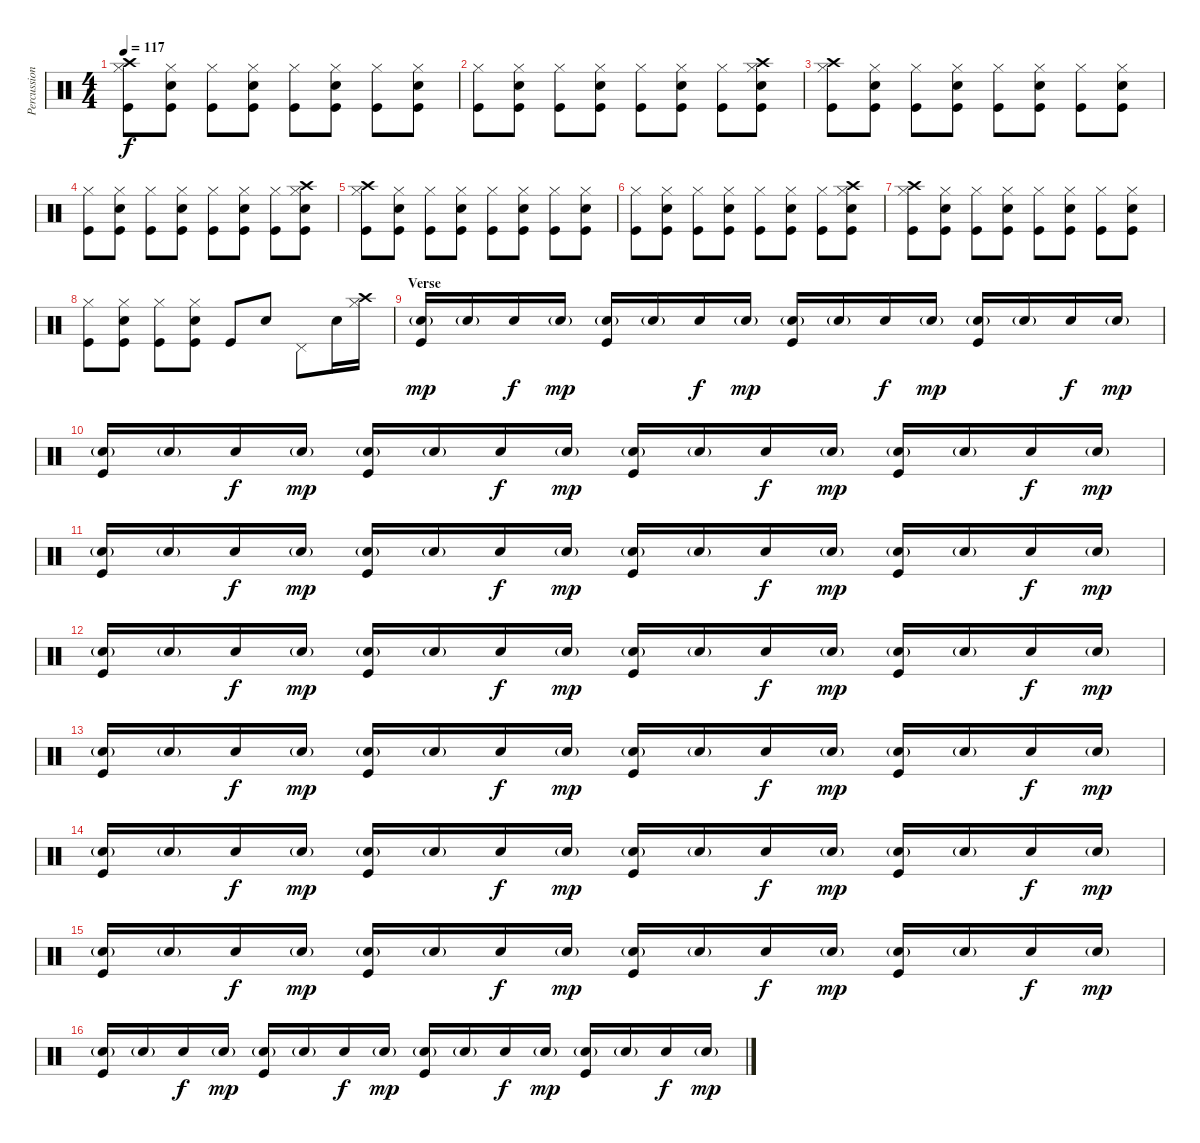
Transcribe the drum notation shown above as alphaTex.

\track ("Percussion" "Percussion") {instrument percussion}
\staff {score}
\articulation defaults
\ts (4 4)
\tempo 117
\clef neutral
\ks c
("Crash high (hit)" "Hi-Hat (closed)" "Kick (hit)").8{dy f} ("Hi-Hat (closed)" "Snare (hit) 2" "Kick (hit)").8 ("Hi-Hat (closed)" "Kick (hit)").8 ("Hi-Hat (closed)" "Snare (hit) 2" "Kick (hit)").8 ("Hi-Hat (closed)" "Kick (hit)").8 ("Hi-Hat (closed)" "Snare (hit) 2" "Kick (hit)").8 ("Hi-Hat (closed)" "Kick (hit)").8 ("Hi-Hat (closed)" "Snare (hit) 2" "Kick (hit)").8 |
("Hi-Hat (closed)" "Kick (hit)").8 ("Hi-Hat (closed)" "Snare (hit) 2" "Kick (hit)").8 ("Hi-Hat (closed)" "Kick (hit)").8 ("Hi-Hat (closed)" "Snare (hit) 2" "Kick (hit)").8 ("Hi-Hat (closed)" "Kick (hit)").8 ("Hi-Hat (closed)" "Snare (hit) 2" "Kick (hit)").8 ("Hi-Hat (closed)" "Kick (hit)").8 ("Crash high (hit)" "Hi-Hat (closed)" "Snare (hit) 2" "Kick (hit)").8 |
("Crash high (hit)" "Hi-Hat (closed)" "Kick (hit)").8 ("Hi-Hat (closed)" "Snare (hit) 2" "Kick (hit)").8 ("Hi-Hat (closed)" "Kick (hit)").8 ("Hi-Hat (closed)" "Snare (hit) 2" "Kick (hit)").8 ("Hi-Hat (closed)" "Kick (hit)").8 ("Hi-Hat (closed)" "Snare (hit) 2" "Kick (hit)").8 ("Hi-Hat (closed)" "Kick (hit)").8 ("Hi-Hat (closed)" "Snare (hit) 2" "Kick (hit)").8 |
("Hi-Hat (closed)" "Kick (hit)").8 ("Hi-Hat (closed)" "Snare (hit) 2" "Kick (hit)").8 ("Hi-Hat (closed)" "Kick (hit)").8 ("Hi-Hat (closed)" "Snare (hit) 2" "Kick (hit)").8 ("Hi-Hat (closed)" "Kick (hit)").8 ("Hi-Hat (closed)" "Snare (hit) 2" "Kick (hit)").8 ("Hi-Hat (closed)" "Kick (hit)").8 ("Crash high (hit)" "Hi-Hat (closed)" "Snare (hit) 2" "Kick (hit)").8 |
("Crash high (hit)" "Hi-Hat (closed)" "Kick (hit)").8 ("Hi-Hat (closed)" "Snare (hit) 2" "Kick (hit)").8 ("Hi-Hat (closed)" "Kick (hit)").8 ("Hi-Hat (closed)" "Snare (hit) 2" "Kick (hit)").8 ("Hi-Hat (closed)" "Kick (hit)").8 ("Hi-Hat (closed)" "Snare (hit) 2" "Kick (hit)").8 ("Hi-Hat (closed)" "Kick (hit)").8 ("Hi-Hat (closed)" "Snare (hit) 2" "Kick (hit)").8 |
("Hi-Hat (closed)" "Kick (hit)").8 ("Hi-Hat (closed)" "Snare (hit) 2" "Kick (hit)").8 ("Hi-Hat (closed)" "Kick (hit)").8 ("Hi-Hat (closed)" "Snare (hit) 2" "Kick (hit)").8 ("Hi-Hat (closed)" "Kick (hit)").8 ("Hi-Hat (closed)" "Snare (hit) 2" "Kick (hit)").8 ("Hi-Hat (closed)" "Kick (hit)").8 ("Crash high (hit)" "Hi-Hat (closed)" "Snare (hit) 2" "Kick (hit)").8 |
("Crash high (hit)" "Hi-Hat (closed)" "Kick (hit)").8 ("Hi-Hat (closed)" "Snare (hit) 2" "Kick (hit)").8 ("Hi-Hat (closed)" "Kick (hit)").8 ("Hi-Hat (closed)" "Snare (hit) 2" "Kick (hit)").8 ("Hi-Hat (closed)" "Kick (hit)").8 ("Hi-Hat (closed)" "Snare (hit) 2" "Kick (hit)").8 ("Hi-Hat (closed)" "Kick (hit)").8 ("Hi-Hat (closed)" "Snare (hit) 2" "Kick (hit)").8 |
("Hi-Hat (closed)" "Kick (hit)").8 ("Hi-Hat (closed)" "Snare (hit) 2" "Kick (hit)").8 ("Hi-Hat (closed)" "Kick (hit)").8 ("Hi-Hat (closed)" "Snare (hit) 2" "Kick (hit)").8 "Kick (hit)".8 "Snare (hit) 2".8 "Pedal Hi-Hat (hit)".8 "Snare (hit) 2".16 ("Crash high (hit)" "Hi-Hat (closed)").16 |
\section ("" "Verse")
("Snare (hit) 2"{g} "Kick (hit)").16{dy mp} "Snare (hit) 2"{g}.16 "Snare (hit) 2".16{dy f} "Snare (hit) 2"{g}.16{dy mp} ("Snare (hit) 2"{g} "Kick (hit)").16 "Snare (hit) 2"{g}.16 "Snare (hit) 2".16{dy f} "Snare (hit) 2"{g}.16{dy mp} ("Snare (hit) 2"{g} "Kick (hit)").16 "Snare (hit) 2"{g}.16 "Snare (hit) 2".16{dy f} "Snare (hit) 2"{g}.16{dy mp} ("Snare (hit) 2"{g} "Kick (hit)").16 "Snare (hit) 2"{g}.16 "Snare (hit) 2".16{dy f} "Snare (hit) 2"{g}.16{dy mp} |
("Snare (hit) 2"{g} "Kick (hit)").16 "Snare (hit) 2"{g}.16 "Snare (hit) 2".16{dy f} "Snare (hit) 2"{g}.16{dy mp} ("Snare (hit) 2"{g} "Kick (hit)").16 "Snare (hit) 2"{g}.16 "Snare (hit) 2".16{dy f} "Snare (hit) 2"{g}.16{dy mp} ("Snare (hit) 2"{g} "Kick (hit)").16 "Snare (hit) 2"{g}.16 "Snare (hit) 2".16{dy f} "Snare (hit) 2"{g}.16{dy mp} ("Snare (hit) 2"{g} "Kick (hit)").16 "Snare (hit) 2"{g}.16 "Snare (hit) 2".16{dy f} "Snare (hit) 2"{g}.16{dy mp} |
("Snare (hit) 2"{g} "Kick (hit)").16 "Snare (hit) 2"{g}.16 "Snare (hit) 2".16{dy f} "Snare (hit) 2"{g}.16{dy mp} ("Snare (hit) 2"{g} "Kick (hit)").16 "Snare (hit) 2"{g}.16 "Snare (hit) 2".16{dy f} "Snare (hit) 2"{g}.16{dy mp} ("Snare (hit) 2"{g} "Kick (hit)").16 "Snare (hit) 2"{g}.16 "Snare (hit) 2".16{dy f} "Snare (hit) 2"{g}.16{dy mp} ("Snare (hit) 2"{g} "Kick (hit)").16 "Snare (hit) 2"{g}.16 "Snare (hit) 2".16{dy f} "Snare (hit) 2"{g}.16{dy mp} |
("Snare (hit) 2"{g} "Kick (hit)").16 "Snare (hit) 2"{g}.16 "Snare (hit) 2".16{dy f} "Snare (hit) 2"{g}.16{dy mp} ("Snare (hit) 2"{g} "Kick (hit)").16 "Snare (hit) 2"{g}.16 "Snare (hit) 2".16{dy f} "Snare (hit) 2"{g}.16{dy mp} ("Snare (hit) 2"{g} "Kick (hit)").16 "Snare (hit) 2"{g}.16 "Snare (hit) 2".16{dy f} "Snare (hit) 2"{g}.16{dy mp} ("Snare (hit) 2"{g} "Kick (hit)").16 "Snare (hit) 2"{g}.16 "Snare (hit) 2".16{dy f} "Snare (hit) 2"{g}.16{dy mp} |
("Snare (hit) 2"{g} "Kick (hit)").16 "Snare (hit) 2"{g}.16 "Snare (hit) 2".16{dy f} "Snare (hit) 2"{g}.16{dy mp} ("Snare (hit) 2"{g} "Kick (hit)").16 "Snare (hit) 2"{g}.16 "Snare (hit) 2".16{dy f} "Snare (hit) 2"{g}.16{dy mp} ("Snare (hit) 2"{g} "Kick (hit)").16 "Snare (hit) 2"{g}.16 "Snare (hit) 2".16{dy f} "Snare (hit) 2"{g}.16{dy mp} ("Snare (hit) 2"{g} "Kick (hit)").16 "Snare (hit) 2"{g}.16 "Snare (hit) 2".16{dy f} "Snare (hit) 2"{g}.16{dy mp} |
("Snare (hit) 2"{g} "Kick (hit)").16 "Snare (hit) 2"{g}.16 "Snare (hit) 2".16{dy f} "Snare (hit) 2"{g}.16{dy mp} ("Snare (hit) 2"{g} "Kick (hit)").16 "Snare (hit) 2"{g}.16 "Snare (hit) 2".16{dy f} "Snare (hit) 2"{g}.16{dy mp} ("Snare (hit) 2"{g} "Kick (hit)").16 "Snare (hit) 2"{g}.16 "Snare (hit) 2".16{dy f} "Snare (hit) 2"{g}.16{dy mp} ("Snare (hit) 2"{g} "Kick (hit)").16 "Snare (hit) 2"{g}.16 "Snare (hit) 2".16{dy f} "Snare (hit) 2"{g}.16{dy mp} |
("Snare (hit) 2"{g} "Kick (hit)").16 "Snare (hit) 2"{g}.16 "Snare (hit) 2".16{dy f} "Snare (hit) 2"{g}.16{dy mp} ("Snare (hit) 2"{g} "Kick (hit)").16 "Snare (hit) 2"{g}.16 "Snare (hit) 2".16{dy f} "Snare (hit) 2"{g}.16{dy mp} ("Snare (hit) 2"{g} "Kick (hit)").16 "Snare (hit) 2"{g}.16 "Snare (hit) 2".16{dy f} "Snare (hit) 2"{g}.16{dy mp} ("Snare (hit) 2"{g} "Kick (hit)").16 "Snare (hit) 2"{g}.16 "Snare (hit) 2".16{dy f} "Snare (hit) 2"{g}.16{dy mp} |
("Snare (hit) 2"{g} "Kick (hit)").16 "Snare (hit) 2"{g}.16 "Snare (hit) 2".16{dy f} "Snare (hit) 2"{g}.16{dy mp} ("Snare (hit) 2"{g} "Kick (hit)").16 "Snare (hit) 2"{g}.16 "Snare (hit) 2".16{dy f} "Snare (hit) 2"{g}.16{dy mp} ("Snare (hit) 2"{g} "Kick (hit)").16 "Snare (hit) 2"{g}.16 "Snare (hit) 2".16{dy f} "Snare (hit) 2"{g}.16{dy mp} ("Snare (hit) 2"{g} "Kick (hit)").16 "Snare (hit) 2"{g}.16 "Snare (hit) 2".16{dy f} "Snare (hit) 2"{g}.16{dy mp}
